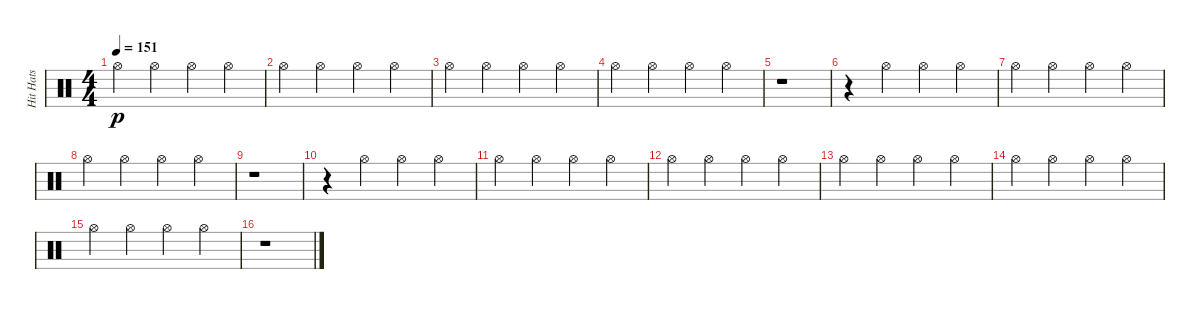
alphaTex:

\track ("Hit Hats" "Hit Hats") {instrument percussion}
\staff {score}
\articulation defaults
\ts (4 4)
\tempo 151
\clef neutral
\ks c "Hi-Hat (open)".4{dy p} "Hi-Hat (open)".4 "Hi-Hat (open)".4 "Hi-Hat (open)".4
|
"Hi-Hat (open)".4 "Hi-Hat (open)".4 "Hi-Hat (open)".4 "Hi-Hat (open)".4 |
"Hi-Hat (open)".4 "Hi-Hat (open)".4 "Hi-Hat (open)".4 "Hi-Hat (open)".4 |
"Hi-Hat (open)".4 "Hi-Hat (open)".4 "Hi-Hat (open)".4 "Hi-Hat (open)".4 |
r.1 |
r.4 "Hi-Hat (open)".4 "Hi-Hat (open)".4 "Hi-Hat (open)".4 |
"Hi-Hat (open)".4 "Hi-Hat (open)".4 "Hi-Hat (open)".4 "Hi-Hat (open)".4 |
"Hi-Hat (open)".4 "Hi-Hat (open)".4 "Hi-Hat (open)".4 "Hi-Hat (open)".4 |
r.1 |
r.4 "Hi-Hat (open)".4 "Hi-Hat (open)".4 "Hi-Hat (open)".4 |
"Hi-Hat (open)".4 "Hi-Hat (open)".4 "Hi-Hat (open)".4 "Hi-Hat (open)".4 |
"Hi-Hat (open)".4{volume 15} "Hi-Hat (open)".4{volume 15} "Hi-Hat (open)".4{volume 14} "Hi-Hat (open)".4{volume 14} |
"Hi-Hat (open)".4{volume 14} "Hi-Hat (open)".4{volume 13} "Hi-Hat (open)".4{volume 13} "Hi-Hat (open)".4{volume 13} |
"Hi-Hat (open)".4{volume 12} "Hi-Hat (open)".4{volume 12} "Hi-Hat (open)".4{volume 12} "Hi-Hat (open)".4{volume 12} |
"Hi-Hat (open)".4{volume 10} "Hi-Hat (open)".4{volume 10} "Hi-Hat (open)".4{volume 10} "Hi-Hat (open)".4{volume 4} |
r.1
